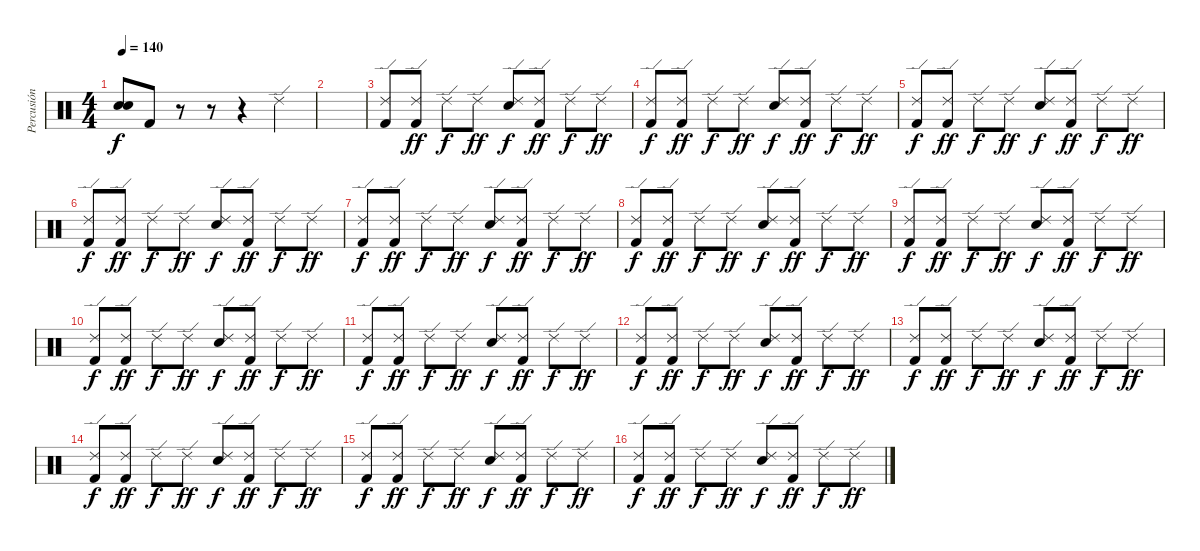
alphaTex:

\track ("Percusión" "Percusión") {instrument percussion}
\staff {score}
\articulation defaults
\ts (4 4)
\tempo 140
\clef neutral
\ks c
("Snare (hit) 2" "Snare (hit) 2").8{dy f} "Kick (hit) 2".8 r.8 r.8 r.4 "Ride (edge) 2".4 |
|
("Ride (edge) 2" "Kick (hit) 2").8 ("Ride (edge) 2" "Kick (hit) 2").8{dy ff} "Ride (edge) 2".8{dy f} "Ride (edge) 2".8{dy ff} ("Ride (edge) 2" "Snare (hit) 2").8{dy f} ("Ride (edge) 2" "Kick (hit) 2").8{dy ff} "Ride (edge) 2".8{dy f} "Ride (edge) 2".8{dy ff} |
("Ride (edge) 2" "Kick (hit) 2").8{dy f} ("Ride (edge) 2" "Kick (hit) 2").8{dy ff} "Ride (edge) 2".8{dy f} "Ride (edge) 2".8{dy ff} ("Ride (edge) 2" "Snare (hit) 2").8{dy f} ("Ride (edge) 2" "Kick (hit) 2").8{dy ff} "Ride (edge) 2".8{dy f} "Ride (edge) 2".8{dy ff} |
("Ride (edge) 2" "Kick (hit) 2").8{dy f} ("Ride (edge) 2" "Kick (hit) 2").8{dy ff} "Ride (edge) 2".8{dy f} "Ride (edge) 2".8{dy ff} ("Ride (edge) 2" "Snare (hit) 2").8{dy f} ("Ride (edge) 2" "Kick (hit) 2").8{dy ff} "Ride (edge) 2".8{dy f} "Ride (edge) 2".8{dy ff} |
("Ride (edge) 2" "Kick (hit) 2").8{dy f} ("Ride (edge) 2" "Kick (hit) 2").8{dy ff} "Ride (edge) 2".8{dy f} "Ride (edge) 2".8{dy ff} ("Ride (edge) 2" "Snare (hit) 2").8{dy f} ("Ride (edge) 2" "Kick (hit) 2").8{dy ff} "Ride (edge) 2".8{dy f} "Ride (edge) 2".8{dy ff} |
("Ride (edge) 2" "Kick (hit) 2").8{dy f} ("Ride (edge) 2" "Kick (hit) 2").8{dy ff} "Ride (edge) 2".8{dy f} "Ride (edge) 2".8{dy ff} ("Ride (edge) 2" "Snare (hit) 2").8{dy f} ("Ride (edge) 2" "Kick (hit) 2").8{dy ff} "Ride (edge) 2".8{dy f} "Ride (edge) 2".8{dy ff} |
("Ride (edge) 2" "Kick (hit) 2").8{dy f} ("Ride (edge) 2" "Kick (hit) 2").8{dy ff} "Ride (edge) 2".8{dy f} "Ride (edge) 2".8{dy ff} ("Ride (edge) 2" "Snare (hit) 2").8{dy f} ("Ride (edge) 2" "Kick (hit) 2").8{dy ff} "Ride (edge) 2".8{dy f} "Ride (edge) 2".8{dy ff} |
("Ride (edge) 2" "Kick (hit) 2").8{dy f} ("Ride (edge) 2" "Kick (hit) 2").8{dy ff} "Ride (edge) 2".8{dy f} "Ride (edge) 2".8{dy ff} ("Ride (edge) 2" "Snare (hit) 2").8{dy f} ("Ride (edge) 2" "Kick (hit) 2").8{dy ff} "Ride (edge) 2".8{dy f} "Ride (edge) 2".8{dy ff} |
("Ride (edge) 2" "Kick (hit) 2").8{dy f} ("Ride (edge) 2" "Kick (hit) 2").8{dy ff} "Ride (edge) 2".8{dy f} "Ride (edge) 2".8{dy ff} ("Ride (edge) 2" "Snare (hit) 2").8{dy f} ("Ride (edge) 2" "Kick (hit) 2").8{dy ff} "Ride (edge) 2".8{dy f} "Ride (edge) 2".8{dy ff} |
("Ride (edge) 2" "Kick (hit) 2").8{dy f} ("Ride (edge) 2" "Kick (hit) 2").8{dy ff} "Ride (edge) 2".8{dy f} "Ride (edge) 2".8{dy ff} ("Ride (edge) 2" "Snare (hit) 2").8{dy f} ("Ride (edge) 2" "Kick (hit) 2").8{dy ff} "Ride (edge) 2".8{dy f} "Ride (edge) 2".8{dy ff} |
("Ride (edge) 2" "Kick (hit) 2").8{dy f} ("Ride (edge) 2" "Kick (hit) 2").8{dy ff} "Ride (edge) 2".8{dy f} "Ride (edge) 2".8{dy ff} ("Ride (edge) 2" "Snare (hit) 2").8{dy f} ("Ride (edge) 2" "Kick (hit) 2").8{dy ff} "Ride (edge) 2".8{dy f} "Ride (edge) 2".8{dy ff} |
("Ride (edge) 2" "Kick (hit) 2").8{dy f} ("Ride (edge) 2" "Kick (hit) 2").8{dy ff} "Ride (edge) 2".8{dy f} "Ride (edge) 2".8{dy ff} ("Ride (edge) 2" "Snare (hit) 2").8{dy f} ("Ride (edge) 2" "Kick (hit) 2").8{dy ff} "Ride (edge) 2".8{dy f} "Ride (edge) 2".8{dy ff} |
("Ride (edge) 2" "Kick (hit) 2").8{dy f} ("Ride (edge) 2" "Kick (hit) 2").8{dy ff} "Ride (edge) 2".8{dy f} "Ride (edge) 2".8{dy ff} ("Ride (edge) 2" "Snare (hit) 2").8{dy f} ("Ride (edge) 2" "Kick (hit) 2").8{dy ff} "Ride (edge) 2".8{dy f} "Ride (edge) 2".8{dy ff} |
("Ride (edge) 2" "Kick (hit) 2").8{dy f} ("Ride (edge) 2" "Kick (hit) 2").8{dy ff} "Ride (edge) 2".8{dy f} "Ride (edge) 2".8{dy ff} ("Ride (edge) 2" "Snare (hit) 2").8{dy f} ("Ride (edge) 2" "Kick (hit) 2").8{dy ff} "Ride (edge) 2".8{dy f} "Ride (edge) 2".8{dy ff} |
("Ride (edge) 2" "Kick (hit) 2").8{dy f} ("Ride (edge) 2" "Kick (hit) 2").8{dy ff} "Ride (edge) 2".8{dy f} "Ride (edge) 2".8{dy ff} ("Ride (edge) 2" "Snare (hit) 2").8{dy f} ("Ride (edge) 2" "Kick (hit) 2").8{dy ff} "Ride (edge) 2".8{dy f} "Ride (edge) 2".8{dy ff}
